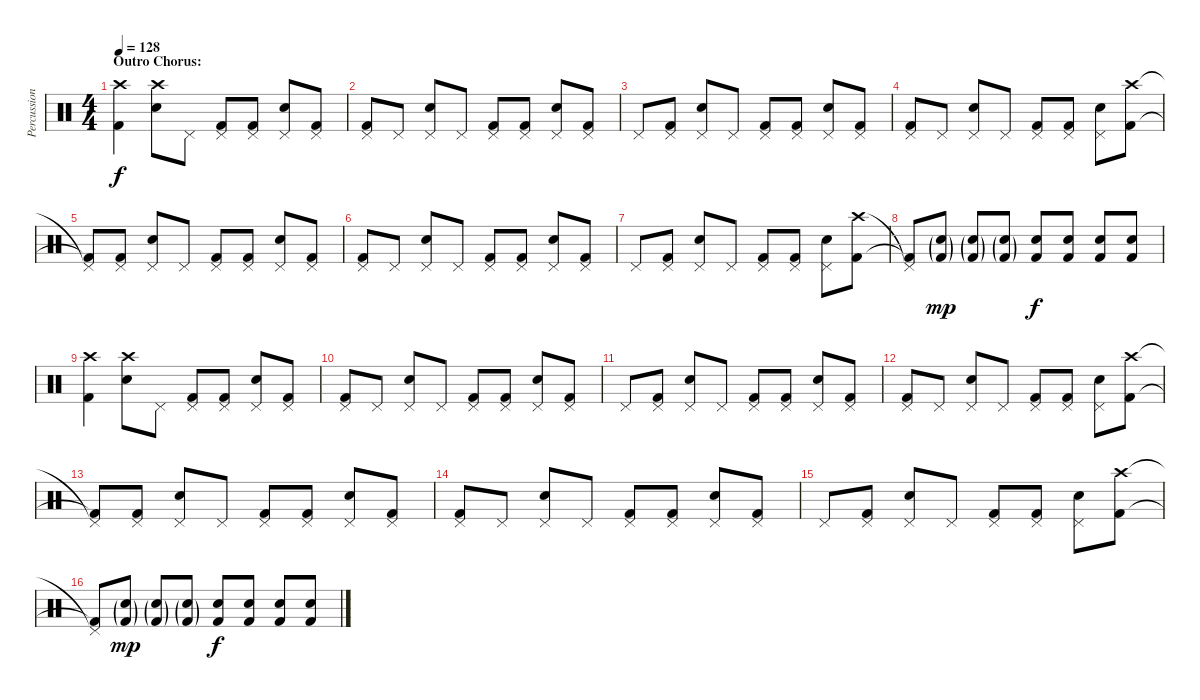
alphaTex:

\track ("Percussion" "Percussion") {instrument percussion}
\staff {score}
\articulation defaults
\ts (4 4)
\section ("" "Outro Chorus:")
\tempo 128
\clef neutral
\ks c
("Crash high (hit)" "Kick (hit) 2").4{dy f} ("Crash high (hit)" "Electric Snare (hit)").8 "Pedal Hi-Hat (hit)".8 ("Pedal Hi-Hat (hit)" "Kick (hit) 2").8 ("Pedal Hi-Hat (hit)" "Kick (hit) 2").8 ("Pedal Hi-Hat (hit)" "Electric Snare (hit)").8 ("Pedal Hi-Hat (hit)" "Kick (hit) 2").8 |
("Pedal Hi-Hat (hit)" "Kick (hit) 2").8 "Pedal Hi-Hat (hit)".8 ("Pedal Hi-Hat (hit)" "Electric Snare (hit)").8 "Pedal Hi-Hat (hit)".8 ("Pedal Hi-Hat (hit)" "Kick (hit) 2").8 ("Pedal Hi-Hat (hit)" "Kick (hit) 2").8 ("Pedal Hi-Hat (hit)" "Electric Snare (hit)").8 ("Pedal Hi-Hat (hit)" "Kick (hit) 2").8 |
"Pedal Hi-Hat (hit)".8 ("Pedal Hi-Hat (hit)" "Kick (hit) 2").8 ("Pedal Hi-Hat (hit)" "Electric Snare (hit)").8 "Pedal Hi-Hat (hit)".8 ("Pedal Hi-Hat (hit)" "Kick (hit) 2").8 ("Pedal Hi-Hat (hit)" "Kick (hit) 2").8 ("Pedal Hi-Hat (hit)" "Electric Snare (hit)").8 ("Pedal Hi-Hat (hit)" "Kick (hit) 2").8 |
("Pedal Hi-Hat (hit)" "Kick (hit) 2").8 "Pedal Hi-Hat (hit)".8 ("Pedal Hi-Hat (hit)" "Electric Snare (hit)").8 "Pedal Hi-Hat (hit)".8 ("Pedal Hi-Hat (hit)" "Kick (hit) 2").8 ("Pedal Hi-Hat (hit)" "Kick (hit) 2").8 ("Pedal Hi-Hat (hit)" "Electric Snare (hit)").8 ("Crash high (hit)" "Kick (hit) 2").8 |
("Pedal Hi-Hat (hit)"{t} "Kick (hit) 2"{t}).8 ("Pedal Hi-Hat (hit)" "Kick (hit) 2").8 ("Pedal Hi-Hat (hit)" "Electric Snare (hit)").8 "Pedal Hi-Hat (hit)".8 ("Pedal Hi-Hat (hit)" "Kick (hit) 2").8 ("Pedal Hi-Hat (hit)" "Kick (hit) 2").8 ("Pedal Hi-Hat (hit)" "Electric Snare (hit)").8 ("Pedal Hi-Hat (hit)" "Kick (hit) 2").8 |
("Pedal Hi-Hat (hit)" "Kick (hit) 2").8 "Pedal Hi-Hat (hit)".8 ("Pedal Hi-Hat (hit)" "Electric Snare (hit)").8 "Pedal Hi-Hat (hit)".8 ("Pedal Hi-Hat (hit)" "Kick (hit) 2").8 ("Pedal Hi-Hat (hit)" "Kick (hit) 2").8 ("Pedal Hi-Hat (hit)" "Electric Snare (hit)").8 ("Pedal Hi-Hat (hit)" "Kick (hit) 2").8 |
"Pedal Hi-Hat (hit)".8 ("Pedal Hi-Hat (hit)" "Kick (hit) 2").8 ("Pedal Hi-Hat (hit)" "Electric Snare (hit)").8 "Pedal Hi-Hat (hit)".8 ("Pedal Hi-Hat (hit)" "Kick (hit) 2").8 ("Pedal Hi-Hat (hit)" "Kick (hit) 2").8 ("Pedal Hi-Hat (hit)" "Electric Snare (hit)").8 ("Crash high (hit)" "Kick (hit) 2").8 |
("Pedal Hi-Hat (hit)"{t} "Kick (hit) 2"{t}).8 ("Electric Snare (hit)"{g} "Kick (hit) 2"{g}).8{dy mp} ("Electric Snare (hit)"{g} "Kick (hit) 2"{g}).8 ("Electric Snare (hit)"{g} "Kick (hit) 2"{g}).8 ("Electric Snare (hit)" "Kick (hit) 2").8{dy f} ("Electric Snare (hit)" "Kick (hit) 2").8 ("Electric Snare (hit)" "Kick (hit) 2").8 ("Electric Snare (hit)" "Kick (hit) 2").8 |
("Crash high (hit)" "Kick (hit) 2").4 ("Crash high (hit)" "Electric Snare (hit)").8 "Pedal Hi-Hat (hit)".8 ("Pedal Hi-Hat (hit)" "Kick (hit) 2").8 ("Pedal Hi-Hat (hit)" "Kick (hit) 2").8 ("Pedal Hi-Hat (hit)" "Electric Snare (hit)").8 ("Pedal Hi-Hat (hit)" "Kick (hit) 2").8 |
("Pedal Hi-Hat (hit)" "Kick (hit) 2").8 "Pedal Hi-Hat (hit)".8 ("Pedal Hi-Hat (hit)" "Electric Snare (hit)").8 "Pedal Hi-Hat (hit)".8 ("Pedal Hi-Hat (hit)" "Kick (hit) 2").8 ("Pedal Hi-Hat (hit)" "Kick (hit) 2").8 ("Pedal Hi-Hat (hit)" "Electric Snare (hit)").8 ("Pedal Hi-Hat (hit)" "Kick (hit) 2").8 |
"Pedal Hi-Hat (hit)".8 ("Pedal Hi-Hat (hit)" "Kick (hit) 2").8 ("Pedal Hi-Hat (hit)" "Electric Snare (hit)").8 "Pedal Hi-Hat (hit)".8 ("Pedal Hi-Hat (hit)" "Kick (hit) 2").8 ("Pedal Hi-Hat (hit)" "Kick (hit) 2").8 ("Pedal Hi-Hat (hit)" "Electric Snare (hit)").8 ("Pedal Hi-Hat (hit)" "Kick (hit) 2").8 |
("Pedal Hi-Hat (hit)" "Kick (hit) 2").8 "Pedal Hi-Hat (hit)".8 ("Pedal Hi-Hat (hit)" "Electric Snare (hit)").8 "Pedal Hi-Hat (hit)".8 ("Pedal Hi-Hat (hit)" "Kick (hit) 2").8 ("Pedal Hi-Hat (hit)" "Kick (hit) 2").8 ("Pedal Hi-Hat (hit)" "Electric Snare (hit)").8 ("Crash high (hit)" "Kick (hit) 2").8 |
("Pedal Hi-Hat (hit)"{t} "Kick (hit) 2"{t}).8 ("Pedal Hi-Hat (hit)" "Kick (hit) 2").8 ("Pedal Hi-Hat (hit)" "Electric Snare (hit)").8 "Pedal Hi-Hat (hit)".8 ("Pedal Hi-Hat (hit)" "Kick (hit) 2").8 ("Pedal Hi-Hat (hit)" "Kick (hit) 2").8 ("Pedal Hi-Hat (hit)" "Electric Snare (hit)").8 ("Pedal Hi-Hat (hit)" "Kick (hit) 2").8 |
("Pedal Hi-Hat (hit)" "Kick (hit) 2").8 "Pedal Hi-Hat (hit)".8 ("Pedal Hi-Hat (hit)" "Electric Snare (hit)").8 "Pedal Hi-Hat (hit)".8 ("Pedal Hi-Hat (hit)" "Kick (hit) 2").8 ("Pedal Hi-Hat (hit)" "Kick (hit) 2").8 ("Pedal Hi-Hat (hit)" "Electric Snare (hit)").8 ("Pedal Hi-Hat (hit)" "Kick (hit) 2").8 |
"Pedal Hi-Hat (hit)".8 ("Pedal Hi-Hat (hit)" "Kick (hit) 2").8 ("Pedal Hi-Hat (hit)" "Electric Snare (hit)").8 "Pedal Hi-Hat (hit)".8 ("Pedal Hi-Hat (hit)" "Kick (hit) 2").8 ("Pedal Hi-Hat (hit)" "Kick (hit) 2").8 ("Pedal Hi-Hat (hit)" "Electric Snare (hit)").8 ("Crash high (hit)" "Kick (hit) 2").8 |
("Pedal Hi-Hat (hit)"{t} "Kick (hit) 2"{t}).8 ("Electric Snare (hit)"{g} "Kick (hit) 2"{g}).8{dy mp} ("Electric Snare (hit)"{g} "Kick (hit) 2"{g}).8 ("Electric Snare (hit)"{g} "Kick (hit) 2"{g}).8 ("Electric Snare (hit)" "Kick (hit) 2").8{dy f} ("Electric Snare (hit)" "Kick (hit) 2").8 ("Electric Snare (hit)" "Kick (hit) 2").8 ("Electric Snare (hit)" "Kick (hit) 2").8
